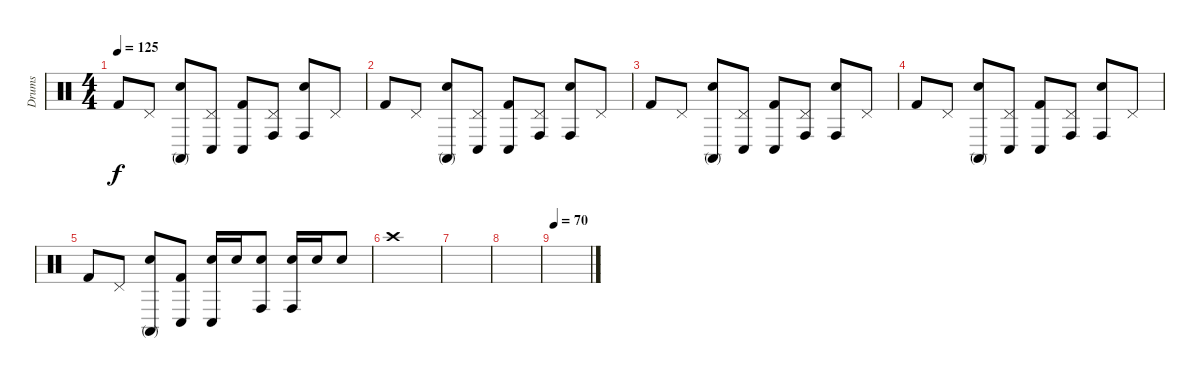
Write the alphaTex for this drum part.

\track ("Drums" "Drums") {instrument percussion}
\staff {score}
\articulation defaults
\ts (4 4)
\tempo 125
\clef neutral
\ks c "Kick (hit) 2".8{dy f} "Pedal Hi-Hat (hit)".8
("Snare (hit) 2" "Conga high (mute)").8 ("Pedal Hi-Hat (hit)" "Conga low (hit)").8 ("Kick (hit) 2" "Conga low (hit)").8 ("Pedal Hi-Hat (hit)" "Conga high (hit)").8 ("Snare (hit) 2" "Conga high (hit)").8 "Pedal Hi-Hat (hit)".8 |
"Kick (hit) 2".8 "Pedal Hi-Hat (hit)".8 ("Snare (hit) 2" "Conga high (mute)").8 ("Pedal Hi-Hat (hit)" "Conga low (hit)").8 ("Kick (hit) 2" "Conga low (hit)").8 ("Pedal Hi-Hat (hit)" "Conga high (hit)").8 ("Snare (hit) 2" "Conga high (hit)").8 "Pedal Hi-Hat (hit)".8 |
"Kick (hit) 2".8 "Pedal Hi-Hat (hit)".8 ("Snare (hit) 2" "Conga high (mute)").8 ("Pedal Hi-Hat (hit)" "Conga low (hit)").8 ("Kick (hit) 2" "Conga low (hit)").8 ("Pedal Hi-Hat (hit)" "Conga high (hit)").8 ("Snare (hit) 2" "Conga high (hit)").8 "Pedal Hi-Hat (hit)".8 |
"Kick (hit) 2".8 "Pedal Hi-Hat (hit)".8 ("Snare (hit) 2" "Conga high (mute)").8 ("Pedal Hi-Hat (hit)" "Conga low (hit)").8 ("Kick (hit) 2" "Conga low (hit)").8 ("Pedal Hi-Hat (hit)" "Conga high (hit)").8 ("Snare (hit) 2" "Conga high (hit)").8 "Pedal Hi-Hat (hit)".8 |
"Kick (hit) 2".8 "Pedal Hi-Hat (hit)".8 ("Snare (hit) 2" "Conga high (mute)").8 ("Kick (hit) 2" "Conga low (hit)").8 ("Snare (hit) 2" "Conga low (hit)").16 "Snare (hit) 2".16 ("Snare (hit) 2" "Conga high (hit)").8 ("Snare (hit) 2" "Conga high (hit)").16 "Snare (hit) 2".16 "Snare (hit) 2".8 |
"Crash high (hit)".1 |
|
|
\tempo 70
